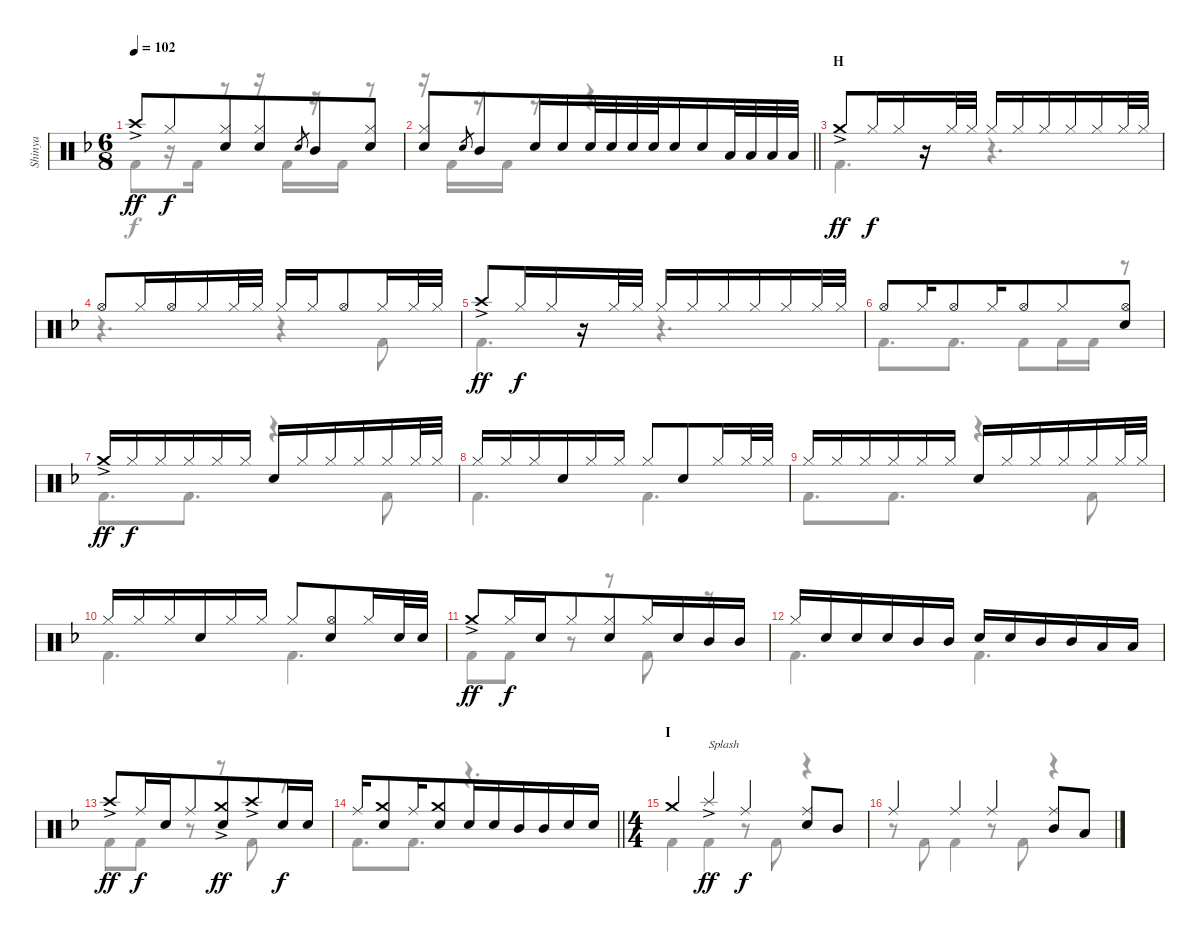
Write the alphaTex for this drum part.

\track ("Shinya" "Shinya") {mute instrument percussion}
\staff {score}
\articulation defaults
\voice
\ts (6 8)
\tempo 102
\clef neutral
\ks f "Crash high (hit)"{ac}.8{dy ff} "Hi-Hat (closed)".8{dy f}
("Hi-Hat (closed)" "Snare (hit) 2").8{beam merge} ("Hi-Hat (closed)" "Snare (hit) 2").8 "Snare (hit)"{h}.8{gr beam merge} "Mid Tom (hit)".8 ("Hi-Hat (closed)" "Snare (hit) 2").8 |
\barLineRight lightlight
("Hi-Hat (closed)" "Snare (hit) 2").8 "Snare (hit)"{h}.8{gr beam merge} "Mid Tom (hit)".8{beam merge} "Snare (hit) 2".16 "Snare (hit) 2".16{beam merge} "Snare (hit) 2".32{beam merge} "Snare (hit) 2".32 "Snare (hit) 2".32{beam merge} "Snare (hit) 2".32 "Snare (hit) 2".16{beam merge} "Snare (hit) 2".16 "Low Tom (hit)".32 "Low Tom (hit)".32{beam merge} "Low Tom (hit)".32 "Low Tom (hit)".32 |
\section ("" "H")
"Crash medium (hit)"{ac}.8{dy ff} "Hi-Hat (closed)".16{dy f} "Hi-Hat (closed)".16{beam merge} r.16 "Hi-Hat (closed)".32{beam merge} "Hi-Hat (closed)".32 "Hi-Hat (closed)".16 "Hi-Hat (closed)".16 "Hi-Hat (closed)".16{beam merge} "Hi-Hat (closed)".16{beam merge} "Hi-Hat (closed)".16 "Hi-Hat (closed)".32 "Hi-Hat (closed)".32 |
"Hi-Hat (open)".8 "Hi-Hat (closed)".16 "Hi-Hat (open)".16{beam merge} "Hi-Hat (closed)".16 "Hi-Hat (closed)".32{beam merge} "Hi-Hat (closed)".32 "Hi-Hat (closed)".16 "Hi-Hat (closed)".16 "Hi-Hat (open)".8{beam merge} "Hi-Hat (closed)".16 "Hi-Hat (closed)".32 "Hi-Hat (closed)".32 |
"Crash high (hit)"{ac}.8{dy ff} "Hi-Hat (closed)".16{dy f} "Hi-Hat (closed)".16{beam merge} r.16{beam merge} "Hi-Hat (closed)".32{beam merge} "Hi-Hat (closed)".32 "Hi-Hat (closed)".16 "Hi-Hat (closed)".16 "Hi-Hat (closed)".16{beam merge} "Hi-Hat (closed)".16{beam merge} "Hi-Hat (closed)".16 "Hi-Hat (closed)".32 "Hi-Hat (closed)".32 |
"Hi-Hat (open)".8 "Hi-Hat (closed)".16 "Hi-Hat (open)".8{beam merge} "Hi-Hat (closed)".16{beam merge} "Hi-Hat (open)".8 "Hi-Hat (closed)".8 ("Hi-Hat (open)" "Snare (hit) 2").8 |
"Crash medium (hit)"{ac}.16{dy ff} "Hi-Hat (closed)".16{dy f} "Hi-Hat (closed)".16 "Hi-Hat (closed)".16{beam merge} "Hi-Hat (closed)".16{beam merge} "Hi-Hat (closed)".16 "Snare (hit) 2".16 "Hi-Hat (closed)".16 "Hi-Hat (closed)".16{beam merge} "Hi-Hat (closed)".16{beam merge} "Hi-Hat (closed)".16 "Hi-Hat (closed)".32 "Hi-Hat (closed)".32 |
"Hi-Hat (closed)".16 "Hi-Hat (closed)".16{beam merge} "Hi-Hat (closed)".16 "Snare (hit) 2".16{beam merge} "Hi-Hat (closed)".16 "Hi-Hat (closed)".16 "Hi-Hat (closed)".8{beam merge} "Snare (hit) 2".8 "Hi-Hat (closed)".16 "Hi-Hat (closed)".32{beam merge} "Hi-Hat (closed)".32 |
"Hi-Hat (closed)".16 "Hi-Hat (closed)".16 "Hi-Hat (closed)".16{beam merge} "Hi-Hat (closed)".16{beam merge} "Hi-Hat (closed)".16 "Hi-Hat (closed)".16 "Snare (hit) 2".16 "Hi-Hat (closed)".16 "Hi-Hat (closed)".16{beam merge} "Hi-Hat (closed)".16{beam merge} "Hi-Hat (closed)".16 "Hi-Hat (closed)".32 "Hi-Hat (closed)".32 |
"Hi-Hat (closed)".16{beam merge} "Hi-Hat (closed)".16 "Hi-Hat (closed)".16{beam merge} "Snare (hit) 2".16 "Hi-Hat (closed)".16 "Hi-Hat (closed)".16 "Hi-Hat (closed)".8{beam merge} ("Hi-Hat (open)" "Snare (hit) 2").8{beam merge} "Hi-Hat (closed)".16 "Snare (hit) 2".32 "Snare (hit) 2".32 |
"Crash medium (hit)"{ac}.8{dy ff} "Hi-Hat (closed)".16{dy f} "Snare (hit) 2".16 "Hi-Hat (closed)".8{beam merge} ("Hi-Hat (closed)" "Snare (hit) 2").8{beam merge} "Hi-Hat (closed)".16 "Snare (hit) 2".16 "Mid Tom (hit)".16{beam merge} "Mid Tom (hit)".16 |
"Hi-Hat (closed)".16 "Snare (hit) 2".16 "Snare (hit) 2".16{beam merge} "Snare (hit) 2".16{beam merge} "Mid Tom (hit)".16 "Mid Tom (hit)".16 "Snare (hit) 2".16 "Snare (hit) 2".16 "Mid Tom (hit)".16{beam merge} "Mid Tom (hit)".16{beam merge} "Low Tom (hit)".16 "Low Tom (hit)".16 |
"Crash high (hit)"{ac}.8{dy ff} "Ride (middle)".16{dy f} "Snare (hit) 2".16 "Ride (middle)".8{beam merge} ("Crash medium (hit)"{ac} "Snare (hit) 2").8{dy ff beam merge} "Crash high (hit)"{ac}.8 "Snare (hit) 2".16{dy f} "Snare (hit) 2".16 |
\barLineRight lightlight "Ride (middle)".16
("Crash medium (hit)" "Snare (hit) 2").8 "Ride (middle)".16{beam merge} ("Crash medium (hit)" "Snare (hit) 2").8{beam merge} "Snare (hit) 2".16 "Snare (hit) 2".16{beam merge} "Mid Tom (hit)".16 "Mid Tom (hit)".16 "Snare (hit) 2".16 "Snare (hit) 2".16 |
\ts (4 4)
\section ("" "I")
"Crash medium (hit)".4 "Splash (hit)"{ac}.4{txt "Splash" dy ff} "Ride (middle)".4{dy f beam merge} ("Ride (middle)" "Snare (hit) 2").8 "Mid Tom (hit)".8 |
"Ride (middle)".4 "Ride (middle)".4 "Ride (middle)".4{beam merge} ("Ride (middle)" "Mid Tom (hit)").8 "Low Tom (hit)".8
\voice
\clef neutral
\ottava regular
\simile none
\ks f "Kick (hit) 2".8{dy f beam merge}
r.16 "Kick (hit) 2".16 r.8 r.16 "Kick (hit) 2".16{beam merge} r.16 "Kick (hit) 2".16 r.8 |
\barLineRight lightlight
r.16{beam merge} "Kick (hit) 2".16 r.16 "Kick (hit) 2".16 r.8 r.4{d} |
"Kick (hit) 2".4{d} r.4{d} |
r.4{d} r.4 "Kick (hit) 2".8 |
"Kick (hit) 2".4{d} r.4{d} |
"Kick (hit) 2".8{d} "Kick (hit) 2".8{d} "Kick (hit) 2".8 "Kick (hit) 2".16 "Kick (hit) 2".16 r.8 |
"Kick (hit) 2".8{d} "Kick (hit) 2".8{d} r.4 "Kick (hit) 2".8 |
"Kick (hit) 2".4{d} "Kick (hit) 2".4{d} |
"Kick (hit) 2".8{d} "Kick (hit) 2".8{d} r.4 "Kick (hit) 2".8 |
"Kick (hit) 2".4{d} "Kick (hit) 2".4{d} |
"Kick (hit) 2".8 "Kick (hit) 2".8 r.8 r.8 "Kick (hit) 2".8 r.8 |
"Kick (hit) 2".4{d} "Kick (hit) 2".4{d} |
"Kick (hit) 2".8 "Kick (hit) 2".8 r.8 r.8 "Kick (hit) 2".8 r.8 |
\barLineRight lightlight "Kick (hit) 2".8{d} "Kick (hit) 2".8{d}
r.4{d} |
"Kick (hit) 2".4 "Kick (hit) 2".4 r.8 "Kick (hit) 2".8 r.4 |
r.8 "Kick (hit) 2".8 "Kick (hit) 2".4 r.8 "Kick (hit) 2".8 r.4
